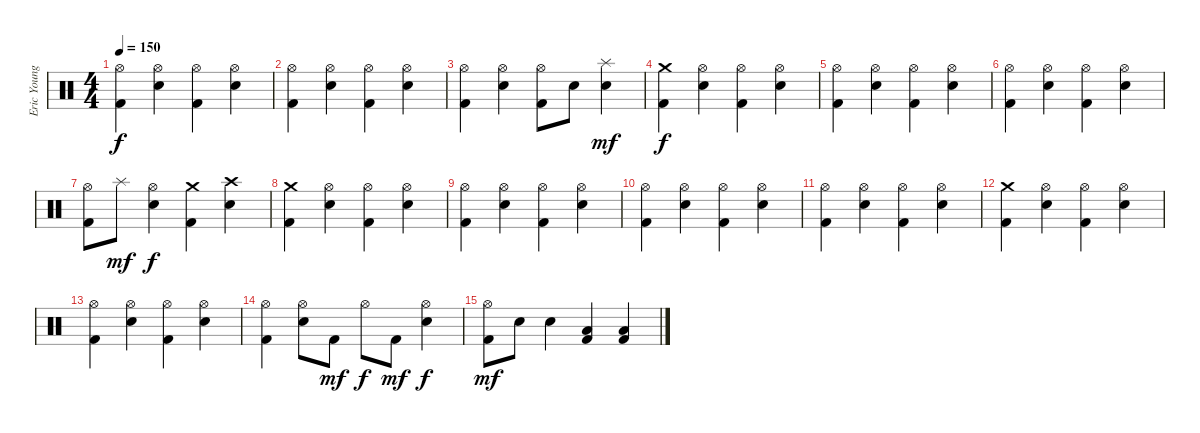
\track ("Eric Young" "Eric Young") {instrument percussion}
\staff {score}
\articulation defaults
\ts (4 4)
\tempo 150
\clef neutral
\ks c
("Hi-Hat (open)" "Kick (hit) 2").4{dy f} ("Hi-Hat (open)" "Electric Snare (hit)").4 ("Hi-Hat (open)" "Kick (hit) 2").4 ("Hi-Hat (open)" "Electric Snare (hit)").4 |
("Hi-Hat (open)" "Kick (hit) 2").4 ("Hi-Hat (open)" "Electric Snare (hit)").4 ("Hi-Hat (open)" "Kick (hit) 2").4 ("Hi-Hat (open)" "Electric Snare (hit)").4 |
("Hi-Hat (open)" "Kick (hit) 2").4 ("Hi-Hat (open)" "Electric Snare (hit)").4 ("Hi-Hat (open)" "Kick (hit) 2").8 "Electric Snare (hit)".8 ("Splash (hit)" "Electric Snare (hit)").4{dy mf} |
("Crash medium (hit)" "Kick (hit) 2").4{dy f} ("Hi-Hat (open)" "Electric Snare (hit)").4 ("Hi-Hat (open)" "Kick (hit) 2").4 ("Hi-Hat (open)" "Electric Snare (hit)").4 |
("Hi-Hat (open)" "Kick (hit) 2").4 ("Hi-Hat (open)" "Electric Snare (hit)").4 ("Hi-Hat (open)" "Kick (hit) 2").4 ("Hi-Hat (open)" "Electric Snare (hit)").4 |
("Hi-Hat (open)" "Kick (hit) 2").4 ("Hi-Hat (open)" "Electric Snare (hit)").4 ("Hi-Hat (open)" "Kick (hit) 2").4 ("Hi-Hat (open)" "Electric Snare (hit)").4 |
("Hi-Hat (open)" "Kick (hit) 2").8 "Splash (hit)".8{dy mf} ("Hi-Hat (open)" "Electric Snare (hit)").4{dy f} ("Crash medium (hit)" "Kick (hit) 2").4 ("Crash high (hit)" "Electric Snare (hit)").4 |
("Crash medium (hit)" "Kick (hit) 2").4 ("Hi-Hat (open)" "Electric Snare (hit)").4 ("Hi-Hat (open)" "Kick (hit) 2").4 ("Hi-Hat (open)" "Electric Snare (hit)").4 |
("Hi-Hat (open)" "Kick (hit) 2").4 ("Hi-Hat (open)" "Electric Snare (hit)").4 ("Hi-Hat (open)" "Kick (hit) 2").4 ("Hi-Hat (open)" "Electric Snare (hit)").4 |
("Hi-Hat (open)" "Kick (hit) 2").4 ("Hi-Hat (open)" "Electric Snare (hit)").4 ("Hi-Hat (open)" "Kick (hit) 2").4 ("Hi-Hat (open)" "Electric Snare (hit)").4 |
("Hi-Hat (open)" "Kick (hit) 2").4 ("Hi-Hat (open)" "Electric Snare (hit)").4 ("Hi-Hat (open)" "Kick (hit) 2").4 ("Hi-Hat (open)" "Electric Snare (hit)").4 |
("Crash medium (hit)" "Kick (hit) 2").4 ("Hi-Hat (open)" "Electric Snare (hit)").4 ("Hi-Hat (open)" "Kick (hit) 2").4 ("Hi-Hat (open)" "Electric Snare (hit)").4 |
("Hi-Hat (open)" "Kick (hit) 2").4 ("Hi-Hat (open)" "Electric Snare (hit)").4 ("Hi-Hat (open)" "Kick (hit) 2").4 ("Hi-Hat (open)" "Electric Snare (hit)").4 |
("Hi-Hat (open)" "Kick (hit) 2").4 ("Hi-Hat (open)" "Electric Snare (hit)").8 "Kick (hit) 2".8{dy mf} "Hi-Hat (open)".8{dy f} "Kick (hit) 2".8{dy mf} ("Hi-Hat (open)" "Electric Snare (hit)").4{dy f} |
("Hi-Hat (open)" "Kick (hit) 2").8{dy mf} "Electric Snare (hit)".8 "Electric Snare (hit)".4 ("Low Tom (hit)" "Kick (hit) 2").4 ("Low Tom (hit)" "Kick (hit) 2").4
